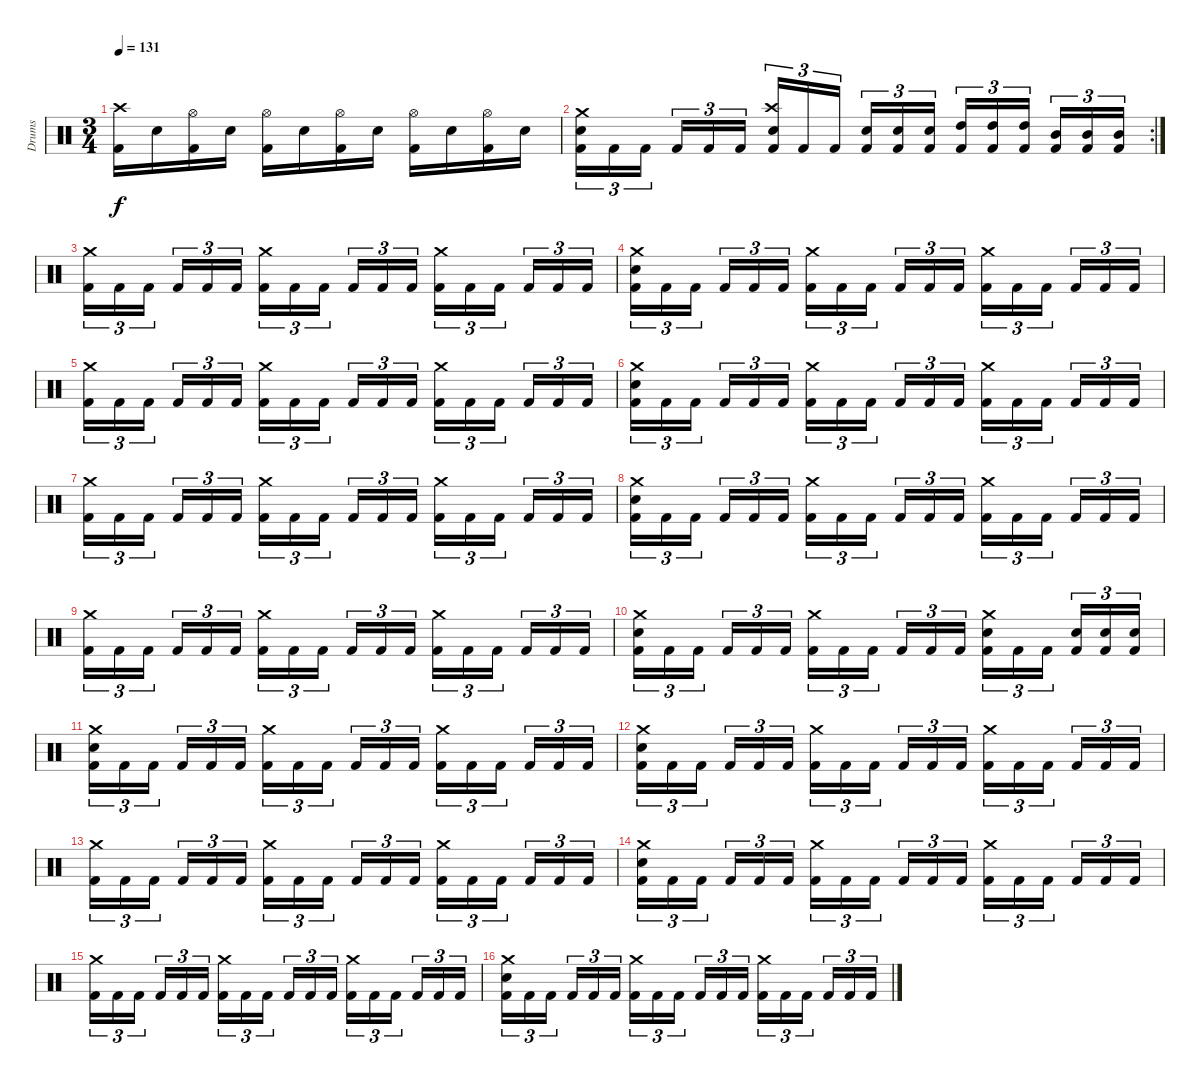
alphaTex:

\track ("Drums" "Drums") {instrument percussion}
\staff {score}
\articulation defaults
\ts (3 4)
\tempo 131
\clef neutral
\ks c
("Kick (hit) 2" "Crash high (hit)").16{dy f} "Electric Snare (hit)".16 ("Kick (hit) 2" "Hi-Hat (open)").16 "Electric Snare (hit)".16 ("Kick (hit) 2" "Hi-Hat (open)").16 "Electric Snare (hit)".16 ("Kick (hit) 2" "Hi-Hat (open)").16 "Electric Snare (hit)".16 ("Kick (hit) 2" "Hi-Hat (open)").16 "Electric Snare (hit)".16 ("Kick (hit) 2" "Hi-Hat (open)").16 "Electric Snare (hit)".16 |
\rc 2
("Kick (hit) 2" "Electric Snare (hit)" "Crash medium (hit)").16{tu (3 2)} "Kick (hit) 2".16{tu (3 2)} "Kick (hit) 2".16{tu (3 2)} "Kick (hit) 2".16{tu (3 2)} "Kick (hit) 2".16{tu (3 2)} "Kick (hit) 2".16{tu (3 2)} ("Kick (hit) 2" "Electric Snare (hit)" "Crash high (hit)").16{tu (3 2)} "Kick (hit) 2".16{tu (3 2)} "Kick (hit) 2".16{tu (3 2)} ("Kick (hit) 2" "Electric Snare (hit)").16{tu (3 2)} ("Kick (hit) 2" "Electric Snare (hit)").16{tu (3 2)} ("Kick (hit) 2" "Electric Snare (hit)").16{tu (3 2)} ("Kick (hit) 2" "High Tom (hit)").16{tu (3 2)} ("Kick (hit) 2" "High Tom (hit)").16{tu (3 2)} ("Kick (hit) 2" "High Tom (hit)").16{tu (3 2)} ("Kick (hit) 2" "Mid Tom (hit)").16{tu (3 2)} ("Kick (hit) 2" "Mid Tom (hit)").16{tu (3 2)} ("Kick (hit) 2" "Mid Tom (hit)").16{tu (3 2)} |
("Kick (hit) 2" "Crash medium (hit)").16{tu (3 2)} "Kick (hit) 2".16{tu (3 2)} "Kick (hit) 2".16{tu (3 2)} "Kick (hit) 2".16{tu (3 2)} "Kick (hit) 2".16{tu (3 2)} "Kick (hit) 2".16{tu (3 2)} ("Kick (hit) 2" "Crash medium (hit)").16{tu (3 2)} "Kick (hit) 2".16{tu (3 2)} "Kick (hit) 2".16{tu (3 2)} "Kick (hit) 2".16{tu (3 2)} "Kick (hit) 2".16{tu (3 2)} "Kick (hit) 2".16{tu (3 2)} ("Kick (hit) 2" "Crash medium (hit)").16{tu (3 2)} "Kick (hit) 2".16{tu (3 2)} "Kick (hit) 2".16{tu (3 2)} "Kick (hit) 2".16{tu (3 2)} "Kick (hit) 2".16{tu (3 2)} "Kick (hit) 2".16{tu (3 2)} |
("Kick (hit) 2" "Electric Snare (hit)" "Crash medium (hit)").16{tu (3 2)} "Kick (hit) 2".16{tu (3 2)} "Kick (hit) 2".16{tu (3 2)} "Kick (hit) 2".16{tu (3 2)} "Kick (hit) 2".16{tu (3 2)} "Kick (hit) 2".16{tu (3 2)} ("Kick (hit) 2" "Crash medium (hit)").16{tu (3 2)} "Kick (hit) 2".16{tu (3 2)} "Kick (hit) 2".16{tu (3 2)} "Kick (hit) 2".16{tu (3 2)} "Kick (hit) 2".16{tu (3 2)} "Kick (hit) 2".16{tu (3 2)} ("Kick (hit) 2" "Crash medium (hit)").16{tu (3 2)} "Kick (hit) 2".16{tu (3 2)} "Kick (hit) 2".16{tu (3 2)} "Kick (hit) 2".16{tu (3 2)} "Kick (hit) 2".16{tu (3 2)} "Kick (hit) 2".16{tu (3 2)} |
("Kick (hit) 2" "Crash medium (hit)").16{tu (3 2)} "Kick (hit) 2".16{tu (3 2)} "Kick (hit) 2".16{tu (3 2)} "Kick (hit) 2".16{tu (3 2)} "Kick (hit) 2".16{tu (3 2)} "Kick (hit) 2".16{tu (3 2)} ("Kick (hit) 2" "Crash medium (hit)").16{tu (3 2)} "Kick (hit) 2".16{tu (3 2)} "Kick (hit) 2".16{tu (3 2)} "Kick (hit) 2".16{tu (3 2)} "Kick (hit) 2".16{tu (3 2)} "Kick (hit) 2".16{tu (3 2)} ("Kick (hit) 2" "Crash medium (hit)").16{tu (3 2)} "Kick (hit) 2".16{tu (3 2)} "Kick (hit) 2".16{tu (3 2)} "Kick (hit) 2".16{tu (3 2)} "Kick (hit) 2".16{tu (3 2)} "Kick (hit) 2".16{tu (3 2)} |
("Kick (hit) 2" "Electric Snare (hit)" "Crash medium (hit)").16{tu (3 2)} "Kick (hit) 2".16{tu (3 2)} "Kick (hit) 2".16{tu (3 2)} "Kick (hit) 2".16{tu (3 2)} "Kick (hit) 2".16{tu (3 2)} "Kick (hit) 2".16{tu (3 2)} ("Kick (hit) 2" "Crash medium (hit)").16{tu (3 2)} "Kick (hit) 2".16{tu (3 2)} "Kick (hit) 2".16{tu (3 2)} "Kick (hit) 2".16{tu (3 2)} "Kick (hit) 2".16{tu (3 2)} "Kick (hit) 2".16{tu (3 2)} ("Kick (hit) 2" "Crash medium (hit)").16{tu (3 2)} "Kick (hit) 2".16{tu (3 2)} "Kick (hit) 2".16{tu (3 2)} "Kick (hit) 2".16{tu (3 2)} "Kick (hit) 2".16{tu (3 2)} "Kick (hit) 2".16{tu (3 2)} |
("Kick (hit) 2" "Crash medium (hit)").16{tu (3 2)} "Kick (hit) 2".16{tu (3 2)} "Kick (hit) 2".16{tu (3 2)} "Kick (hit) 2".16{tu (3 2)} "Kick (hit) 2".16{tu (3 2)} "Kick (hit) 2".16{tu (3 2)} ("Kick (hit) 2" "Crash medium (hit)").16{tu (3 2)} "Kick (hit) 2".16{tu (3 2)} "Kick (hit) 2".16{tu (3 2)} "Kick (hit) 2".16{tu (3 2)} "Kick (hit) 2".16{tu (3 2)} "Kick (hit) 2".16{tu (3 2)} ("Kick (hit) 2" "Crash medium (hit)").16{tu (3 2)} "Kick (hit) 2".16{tu (3 2)} "Kick (hit) 2".16{tu (3 2)} "Kick (hit) 2".16{tu (3 2)} "Kick (hit) 2".16{tu (3 2)} "Kick (hit) 2".16{tu (3 2)} |
("Kick (hit) 2" "Electric Snare (hit)" "Crash medium (hit)").16{tu (3 2)} "Kick (hit) 2".16{tu (3 2)} "Kick (hit) 2".16{tu (3 2)} "Kick (hit) 2".16{tu (3 2)} "Kick (hit) 2".16{tu (3 2)} "Kick (hit) 2".16{tu (3 2)} ("Kick (hit) 2" "Crash medium (hit)").16{tu (3 2)} "Kick (hit) 2".16{tu (3 2)} "Kick (hit) 2".16{tu (3 2)} "Kick (hit) 2".16{tu (3 2)} "Kick (hit) 2".16{tu (3 2)} "Kick (hit) 2".16{tu (3 2)} ("Kick (hit) 2" "Crash medium (hit)").16{tu (3 2)} "Kick (hit) 2".16{tu (3 2)} "Kick (hit) 2".16{tu (3 2)} "Kick (hit) 2".16{tu (3 2)} "Kick (hit) 2".16{tu (3 2)} "Kick (hit) 2".16{tu (3 2)} |
("Kick (hit) 2" "Crash medium (hit)").16{tu (3 2)} "Kick (hit) 2".16{tu (3 2)} "Kick (hit) 2".16{tu (3 2)} "Kick (hit) 2".16{tu (3 2)} "Kick (hit) 2".16{tu (3 2)} "Kick (hit) 2".16{tu (3 2)} ("Kick (hit) 2" "Crash medium (hit)").16{tu (3 2)} "Kick (hit) 2".16{tu (3 2)} "Kick (hit) 2".16{tu (3 2)} "Kick (hit) 2".16{tu (3 2)} "Kick (hit) 2".16{tu (3 2)} "Kick (hit) 2".16{tu (3 2)} ("Kick (hit) 2" "Crash medium (hit)").16{tu (3 2)} "Kick (hit) 2".16{tu (3 2)} "Kick (hit) 2".16{tu (3 2)} "Kick (hit) 2".16{tu (3 2)} "Kick (hit) 2".16{tu (3 2)} "Kick (hit) 2".16{tu (3 2)} |
("Kick (hit) 2" "Electric Snare (hit)" "Crash medium (hit)").16{tu (3 2)} "Kick (hit) 2".16{tu (3 2)} "Kick (hit) 2".16{tu (3 2)} "Kick (hit) 2".16{tu (3 2)} "Kick (hit) 2".16{tu (3 2)} "Kick (hit) 2".16{tu (3 2)} ("Kick (hit) 2" "Crash medium (hit)").16{tu (3 2)} "Kick (hit) 2".16{tu (3 2)} "Kick (hit) 2".16{tu (3 2)} "Kick (hit) 2".16{tu (3 2)} "Kick (hit) 2".16{tu (3 2)} "Kick (hit) 2".16{tu (3 2)} ("Kick (hit) 2" "Electric Snare (hit)" "Crash medium (hit)").16{tu (3 2)} "Kick (hit) 2".16{tu (3 2)} "Kick (hit) 2".16{tu (3 2)} ("Kick (hit) 2" "Electric Snare (hit)").16{tu (3 2)} ("Kick (hit) 2" "Electric Snare (hit)").16{tu (3 2)} ("Kick (hit) 2" "Electric Snare (hit)").16{tu (3 2)} |
("Kick (hit) 2" "Electric Snare (hit)" "Crash medium (hit)").16{tu (3 2)} "Kick (hit) 2".16{tu (3 2)} "Kick (hit) 2".16{tu (3 2)} "Kick (hit) 2".16{tu (3 2)} "Kick (hit) 2".16{tu (3 2)} "Kick (hit) 2".16{tu (3 2)} ("Kick (hit) 2" "Crash medium (hit)").16{tu (3 2)} "Kick (hit) 2".16{tu (3 2)} "Kick (hit) 2".16{tu (3 2)} "Kick (hit) 2".16{tu (3 2)} "Kick (hit) 2".16{tu (3 2)} "Kick (hit) 2".16{tu (3 2)} ("Kick (hit) 2" "Crash medium (hit)").16{tu (3 2)} "Kick (hit) 2".16{tu (3 2)} "Kick (hit) 2".16{tu (3 2)} "Kick (hit) 2".16{tu (3 2)} "Kick (hit) 2".16{tu (3 2)} "Kick (hit) 2".16{tu (3 2)} |
("Kick (hit) 2" "Electric Snare (hit)" "Crash medium (hit)").16{tu (3 2)} "Kick (hit) 2".16{tu (3 2)} "Kick (hit) 2".16{tu (3 2)} "Kick (hit) 2".16{tu (3 2)} "Kick (hit) 2".16{tu (3 2)} "Kick (hit) 2".16{tu (3 2)} ("Kick (hit) 2" "Crash medium (hit)").16{tu (3 2)} "Kick (hit) 2".16{tu (3 2)} "Kick (hit) 2".16{tu (3 2)} "Kick (hit) 2".16{tu (3 2)} "Kick (hit) 2".16{tu (3 2)} "Kick (hit) 2".16{tu (3 2)} ("Kick (hit) 2" "Crash medium (hit)").16{tu (3 2)} "Kick (hit) 2".16{tu (3 2)} "Kick (hit) 2".16{tu (3 2)} "Kick (hit) 2".16{tu (3 2)} "Kick (hit) 2".16{tu (3 2)} "Kick (hit) 2".16{tu (3 2)} |
("Kick (hit) 2" "Crash medium (hit)").16{tu (3 2)} "Kick (hit) 2".16{tu (3 2)} "Kick (hit) 2".16{tu (3 2)} "Kick (hit) 2".16{tu (3 2)} "Kick (hit) 2".16{tu (3 2)} "Kick (hit) 2".16{tu (3 2)} ("Kick (hit) 2" "Crash medium (hit)").16{tu (3 2)} "Kick (hit) 2".16{tu (3 2)} "Kick (hit) 2".16{tu (3 2)} "Kick (hit) 2".16{tu (3 2)} "Kick (hit) 2".16{tu (3 2)} "Kick (hit) 2".16{tu (3 2)} ("Kick (hit) 2" "Crash medium (hit)").16{tu (3 2)} "Kick (hit) 2".16{tu (3 2)} "Kick (hit) 2".16{tu (3 2)} "Kick (hit) 2".16{tu (3 2)} "Kick (hit) 2".16{tu (3 2)} "Kick (hit) 2".16{tu (3 2)} |
("Kick (hit) 2" "Electric Snare (hit)" "Crash medium (hit)").16{tu (3 2)} "Kick (hit) 2".16{tu (3 2)} "Kick (hit) 2".16{tu (3 2)} "Kick (hit) 2".16{tu (3 2)} "Kick (hit) 2".16{tu (3 2)} "Kick (hit) 2".16{tu (3 2)} ("Kick (hit) 2" "Crash medium (hit)").16{tu (3 2)} "Kick (hit) 2".16{tu (3 2)} "Kick (hit) 2".16{tu (3 2)} "Kick (hit) 2".16{tu (3 2)} "Kick (hit) 2".16{tu (3 2)} "Kick (hit) 2".16{tu (3 2)} ("Kick (hit) 2" "Crash medium (hit)").16{tu (3 2)} "Kick (hit) 2".16{tu (3 2)} "Kick (hit) 2".16{tu (3 2)} "Kick (hit) 2".16{tu (3 2)} "Kick (hit) 2".16{tu (3 2)} "Kick (hit) 2".16{tu (3 2)} |
("Kick (hit) 2" "Crash medium (hit)").16{tu (3 2)} "Kick (hit) 2".16{tu (3 2)} "Kick (hit) 2".16{tu (3 2)} "Kick (hit) 2".16{tu (3 2)} "Kick (hit) 2".16{tu (3 2)} "Kick (hit) 2".16{tu (3 2)} ("Kick (hit) 2" "Crash medium (hit)").16{tu (3 2)} "Kick (hit) 2".16{tu (3 2)} "Kick (hit) 2".16{tu (3 2)} "Kick (hit) 2".16{tu (3 2)} "Kick (hit) 2".16{tu (3 2)} "Kick (hit) 2".16{tu (3 2)} ("Kick (hit) 2" "Crash medium (hit)").16{tu (3 2)} "Kick (hit) 2".16{tu (3 2)} "Kick (hit) 2".16{tu (3 2)} "Kick (hit) 2".16{tu (3 2)} "Kick (hit) 2".16{tu (3 2)} "Kick (hit) 2".16{tu (3 2)} |
("Kick (hit) 2" "Electric Snare (hit)" "Crash medium (hit)").16{tu (3 2)} "Kick (hit) 2".16{tu (3 2)} "Kick (hit) 2".16{tu (3 2)} "Kick (hit) 2".16{tu (3 2)} "Kick (hit) 2".16{tu (3 2)} "Kick (hit) 2".16{tu (3 2)} ("Kick (hit) 2" "Crash medium (hit)").16{tu (3 2)} "Kick (hit) 2".16{tu (3 2)} "Kick (hit) 2".16{tu (3 2)} "Kick (hit) 2".16{tu (3 2)} "Kick (hit) 2".16{tu (3 2)} "Kick (hit) 2".16{tu (3 2)} ("Kick (hit) 2" "Crash medium (hit)").16{tu (3 2)} "Kick (hit) 2".16{tu (3 2)} "Kick (hit) 2".16{tu (3 2)} "Kick (hit) 2".16{tu (3 2)} "Kick (hit) 2".16{tu (3 2)} "Kick (hit) 2".16{tu (3 2)}
